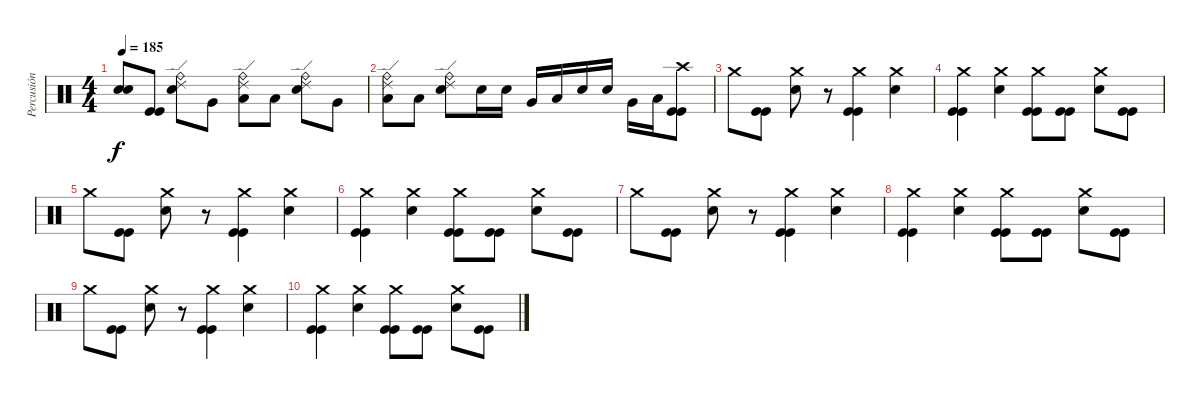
\track ("Percusión" "Percusión") {instrument percussion}
\staff {score}
\articulation defaults
\ts (4 4)
\tempo 185
\clef neutral
\ks c
("Snare (hit)"{t} "Snare (hit)"{t}).8{dy f} ("Kick (hit)" "Kick (hit)").8 ("Ride (edge) 2" "Ride (bell)" "Electric Snare (hit)").8 "Very Low Tom (hit)".8 ("Ride (edge) 2" "Ride (bell)" "Low Floor Tom (hit)").8 "Low Floor Tom (hit)".8 ("Ride (edge) 2" "Ride (bell)" "Electric Snare (hit)").8 "Very Low Tom (hit)".8 |
("Ride (edge) 2" "Ride (bell)" "Low Floor Tom (hit)").8 "Low Floor Tom (hit)".8 ("Ride (edge) 2" "Ride (bell)" "Electric Snare (hit)").8 "Electric Snare (hit)".16 "Electric Snare (hit)".16 "Very Low Tom (hit)".16 "Low Floor Tom (hit)".16 "Electric Snare (hit)".16 "Electric Snare (hit)".16 "Very Low Tom (hit)".16 "Low Floor Tom (hit)".16 ("Crash high (hit)" "Kick (hit)" "Kick (hit)").8 |
"Crash medium (hit)".8 ("Kick (hit)" "Kick (hit)").8 ("Crash medium (hit)" "Electric Snare (hit)").8 r.8 ("Crash medium (hit)" "Kick (hit)" "Kick (hit)").4 ("Crash medium (hit)" "Electric Snare (hit)").4 |
("Crash medium (hit)" "Kick (hit)" "Kick (hit)").4 ("Crash medium (hit)" "Electric Snare (hit)").4 ("Crash medium (hit)" "Kick (hit)" "Kick (hit)").8 ("Kick (hit)" "Kick (hit)").8 ("Crash medium (hit)" "Electric Snare (hit)").8 ("Kick (hit)" "Kick (hit)").8 |
"Crash medium (hit)".8 ("Kick (hit)" "Kick (hit)").8 ("Crash medium (hit)" "Electric Snare (hit)").8 r.8 ("Crash medium (hit)" "Kick (hit)" "Kick (hit)").4 ("Crash medium (hit)" "Electric Snare (hit)").4 |
("Crash medium (hit)" "Kick (hit)" "Kick (hit)").4 ("Crash medium (hit)" "Electric Snare (hit)").4 ("Crash medium (hit)" "Kick (hit)" "Kick (hit)").8 ("Kick (hit)" "Kick (hit)").8 ("Crash medium (hit)" "Electric Snare (hit)").8 ("Kick (hit)" "Kick (hit)").8 |
"Crash medium (hit)".8 ("Kick (hit)" "Kick (hit)").8 ("Crash medium (hit)" "Electric Snare (hit)").8 r.8 ("Crash medium (hit)" "Kick (hit)" "Kick (hit)").4 ("Crash medium (hit)" "Electric Snare (hit)").4 |
("Crash medium (hit)" "Kick (hit)" "Kick (hit)").4 ("Crash medium (hit)" "Electric Snare (hit)").4 ("Crash medium (hit)" "Kick (hit)" "Kick (hit)").8 ("Kick (hit)" "Kick (hit)").8 ("Crash medium (hit)" "Electric Snare (hit)").8 ("Kick (hit)" "Kick (hit)").8 |
"Crash medium (hit)".8 ("Kick (hit)" "Kick (hit)").8 ("Crash medium (hit)" "Electric Snare (hit)").8 r.8 ("Crash medium (hit)" "Kick (hit)" "Kick (hit)").4 ("Crash medium (hit)" "Electric Snare (hit)").4 |
("Crash medium (hit)" "Kick (hit)" "Kick (hit)").4 ("Crash medium (hit)" "Electric Snare (hit)").4 ("Crash medium (hit)" "Kick (hit)" "Kick (hit)").8 ("Kick (hit)" "Kick (hit)").8 ("Crash medium (hit)" "Electric Snare (hit)").8 ("Kick (hit)" "Kick (hit)").8
